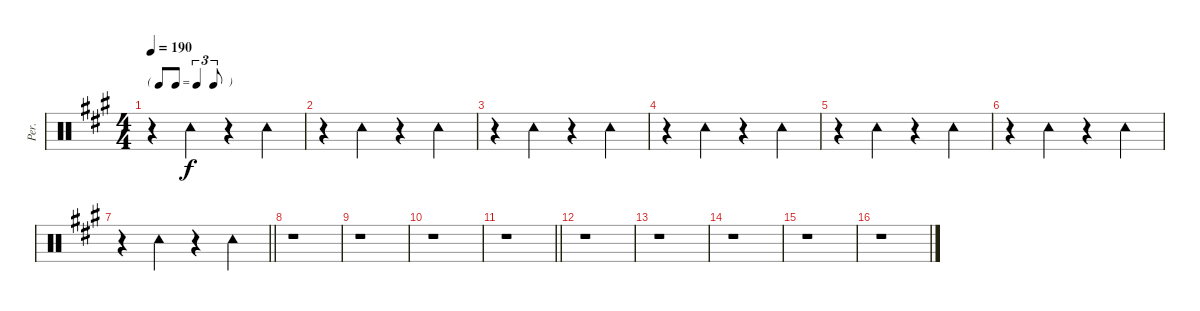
\track ("Per." "Per.") {instrument percussion}
\staff {score}
\articulation defaults
\ts (4 4)
\tf triplet8th
\tempo 190
\clef neutral
\ks a
r.4{dy f} "Tambourine (hit)".4 r.4 "Tambourine (hit)".4 |
r.4 "Tambourine (hit)".4 r.4 "Tambourine (hit)".4 |
r.4 "Tambourine (hit)".4 r.4 "Tambourine (hit)".4 |
r.4 "Tambourine (hit)".4 r.4 "Tambourine (hit)".4 |
r.4 "Tambourine (hit)".4 r.4 "Tambourine (hit)".4 |
r.4 "Tambourine (hit)".4 r.4 "Tambourine (hit)".4 |
\barLineRight lightlight
r.4 "Tambourine (hit)".4 r.4 "Tambourine (hit)".4 |
r.1 |
r.1 |
r.1 |
\barLineRight lightlight
r.1 |
r.1 |
r.1 |
r.1 |
r.1 |
r.1
